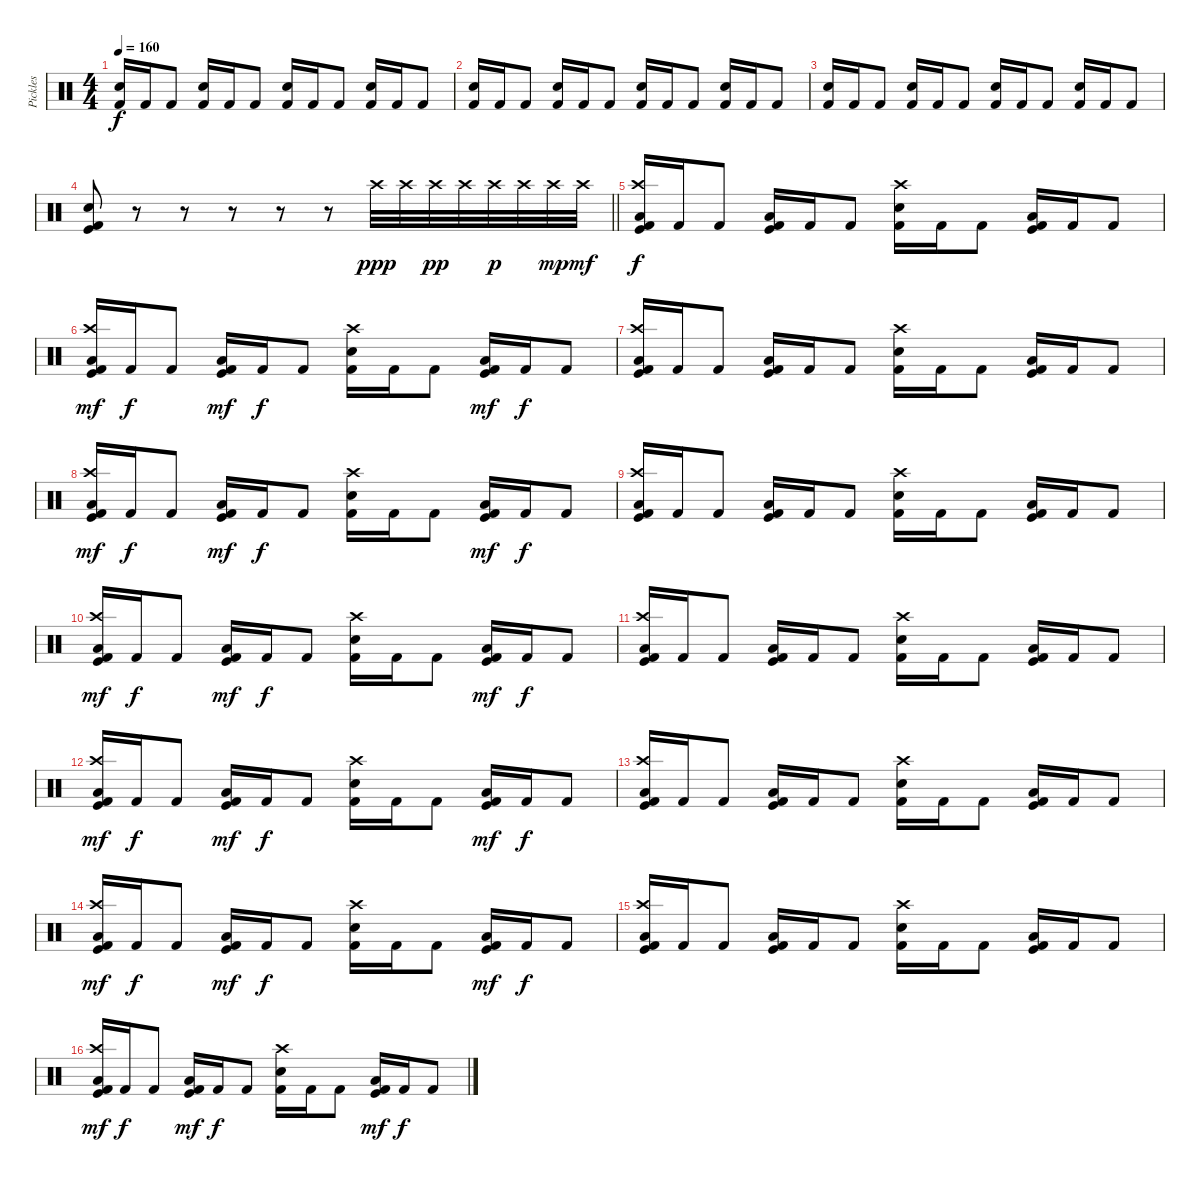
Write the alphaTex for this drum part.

\track ("Pickles" "Pickles") {instrument percussion}
\staff {score}
\articulation defaults
\ts (4 4)
\tempo 160
\clef neutral
\ks c
("Kick (hit) 2" "Electric Snare (hit)").16{dy f} "Kick (hit) 2".16 "Kick (hit) 2".8 ("Kick (hit) 2" "Electric Snare (hit)").16 "Kick (hit) 2".16 "Kick (hit) 2".8 ("Kick (hit) 2" "Electric Snare (hit)").16 "Kick (hit) 2".16 "Kick (hit) 2".8 ("Kick (hit) 2" "Electric Snare (hit)").16 "Kick (hit) 2".16 "Kick (hit) 2".8 |
("Kick (hit) 2" "Electric Snare (hit)").16 "Kick (hit) 2".16 "Kick (hit) 2".8 ("Kick (hit) 2" "Electric Snare (hit)").16 "Kick (hit) 2".16 "Kick (hit) 2".8 ("Kick (hit) 2" "Electric Snare (hit)").16 "Kick (hit) 2".16 "Kick (hit) 2".8 ("Kick (hit) 2" "Electric Snare (hit)").16 "Kick (hit) 2".16 "Kick (hit) 2".8 |
("Kick (hit) 2" "Electric Snare (hit)").16 "Kick (hit) 2".16 "Kick (hit) 2".8 ("Kick (hit) 2" "Electric Snare (hit)").16 "Kick (hit) 2".16 "Kick (hit) 2".8 ("Kick (hit) 2" "Electric Snare (hit)").16 "Kick (hit) 2".16 "Kick (hit) 2".8 ("Kick (hit) 2" "Electric Snare (hit)").16 "Kick (hit) 2".16 "Kick (hit) 2".8 |
\barLineRight lightlight
("Kick (hit) 2" "Kick (hit)" "Electric Snare (hit)").8 r.8 r.8 r.8 r.8 r.8 "Crash high (hit)".32{dy ppp} "Crash high (hit)".32 "Crash high (hit)".32{dy pp} "Crash high (hit)".32 "Crash high (hit)".32{dy p} "Crash high (hit)".32 "Crash high (hit)".32{dy mp} "Crash high (hit)".32{dy mf} |
("Kick (hit) 2" "Kick (hit)" "Low Tom (hit)" "Crash high (hit)").16{dy f} "Kick (hit) 2".16 "Kick (hit) 2".8 ("Kick (hit) 2" "Kick (hit)" "Low Tom (hit)").16 "Kick (hit) 2".16 "Kick (hit) 2".8 ("Kick (hit) 2" "Electric Snare (hit)" "Crash high (hit)").16 "Kick (hit) 2".16 "Kick (hit) 2".8 ("Kick (hit) 2" "Kick (hit)" "Low Tom (hit)").16 "Kick (hit) 2".16 "Kick (hit) 2".8 |
("Kick (hit) 2" "Kick (hit)" "Low Tom (hit)" "Crash high (hit)").16{dy mf} "Kick (hit) 2".16{dy f} "Kick (hit) 2".8 ("Kick (hit) 2" "Kick (hit)" "Low Tom (hit)").16{dy mf} "Kick (hit) 2".16{dy f} "Kick (hit) 2".8 ("Kick (hit) 2" "Electric Snare (hit)" "Crash high (hit)").16 "Kick (hit) 2".16 "Kick (hit) 2".8 ("Kick (hit) 2" "Kick (hit)" "Low Tom (hit)").16{dy mf} "Kick (hit) 2".16{dy f} "Kick (hit) 2".8 |
("Kick (hit) 2" "Kick (hit)" "Low Tom (hit)" "Crash high (hit)").16 "Kick (hit) 2".16 "Kick (hit) 2".8 ("Kick (hit) 2" "Kick (hit)" "Low Tom (hit)").16 "Kick (hit) 2".16 "Kick (hit) 2".8 ("Kick (hit) 2" "Electric Snare (hit)" "Crash high (hit)").16 "Kick (hit) 2".16 "Kick (hit) 2".8 ("Kick (hit) 2" "Kick (hit)" "Low Tom (hit)").16 "Kick (hit) 2".16 "Kick (hit) 2".8 |
("Kick (hit) 2" "Kick (hit)" "Low Tom (hit)" "Crash high (hit)").16{dy mf} "Kick (hit) 2".16{dy f} "Kick (hit) 2".8 ("Kick (hit) 2" "Kick (hit)" "Low Tom (hit)").16{dy mf} "Kick (hit) 2".16{dy f} "Kick (hit) 2".8 ("Kick (hit) 2" "Electric Snare (hit)" "Crash high (hit)").16 "Kick (hit) 2".16 "Kick (hit) 2".8 ("Kick (hit) 2" "Kick (hit)" "Low Tom (hit)").16{dy mf} "Kick (hit) 2".16{dy f} "Kick (hit) 2".8 |
("Kick (hit) 2" "Kick (hit)" "Low Tom (hit)" "Crash high (hit)").16 "Kick (hit) 2".16 "Kick (hit) 2".8 ("Kick (hit) 2" "Kick (hit)" "Low Tom (hit)").16 "Kick (hit) 2".16 "Kick (hit) 2".8 ("Kick (hit) 2" "Electric Snare (hit)" "Crash high (hit)").16 "Kick (hit) 2".16 "Kick (hit) 2".8 ("Kick (hit) 2" "Kick (hit)" "Low Tom (hit)").16 "Kick (hit) 2".16 "Kick (hit) 2".8 |
("Kick (hit) 2" "Kick (hit)" "Low Tom (hit)" "Crash high (hit)").16{dy mf} "Kick (hit) 2".16{dy f} "Kick (hit) 2".8 ("Kick (hit) 2" "Kick (hit)" "Low Tom (hit)").16{dy mf} "Kick (hit) 2".16{dy f} "Kick (hit) 2".8 ("Kick (hit) 2" "Electric Snare (hit)" "Crash high (hit)").16 "Kick (hit) 2".16 "Kick (hit) 2".8 ("Kick (hit) 2" "Kick (hit)" "Low Tom (hit)").16{dy mf} "Kick (hit) 2".16{dy f} "Kick (hit) 2".8 |
("Kick (hit) 2" "Kick (hit)" "Low Tom (hit)" "Crash high (hit)").16 "Kick (hit) 2".16 "Kick (hit) 2".8 ("Kick (hit) 2" "Kick (hit)" "Low Tom (hit)").16 "Kick (hit) 2".16 "Kick (hit) 2".8 ("Kick (hit) 2" "Electric Snare (hit)" "Crash high (hit)").16 "Kick (hit) 2".16 "Kick (hit) 2".8 ("Kick (hit) 2" "Kick (hit)" "Low Tom (hit)").16 "Kick (hit) 2".16 "Kick (hit) 2".8 |
("Kick (hit) 2" "Kick (hit)" "Low Tom (hit)" "Crash high (hit)").16{dy mf} "Kick (hit) 2".16{dy f} "Kick (hit) 2".8 ("Kick (hit) 2" "Kick (hit)" "Low Tom (hit)").16{dy mf} "Kick (hit) 2".16{dy f} "Kick (hit) 2".8 ("Kick (hit) 2" "Electric Snare (hit)" "Crash high (hit)").16 "Kick (hit) 2".16 "Kick (hit) 2".8 ("Kick (hit) 2" "Kick (hit)" "Low Tom (hit)").16{dy mf} "Kick (hit) 2".16{dy f} "Kick (hit) 2".8 |
("Kick (hit) 2" "Kick (hit)" "Low Tom (hit)" "Crash high (hit)").16 "Kick (hit) 2".16 "Kick (hit) 2".8 ("Kick (hit) 2" "Kick (hit)" "Low Tom (hit)").16 "Kick (hit) 2".16 "Kick (hit) 2".8 ("Kick (hit) 2" "Electric Snare (hit)" "Crash high (hit)").16 "Kick (hit) 2".16 "Kick (hit) 2".8 ("Kick (hit) 2" "Kick (hit)" "Low Tom (hit)").16 "Kick (hit) 2".16 "Kick (hit) 2".8 |
("Kick (hit) 2" "Kick (hit)" "Low Tom (hit)" "Crash high (hit)").16{dy mf} "Kick (hit) 2".16{dy f} "Kick (hit) 2".8 ("Kick (hit) 2" "Kick (hit)" "Low Tom (hit)").16{dy mf} "Kick (hit) 2".16{dy f} "Kick (hit) 2".8 ("Kick (hit) 2" "Electric Snare (hit)" "Crash high (hit)").16 "Kick (hit) 2".16 "Kick (hit) 2".8 ("Kick (hit) 2" "Kick (hit)" "Low Tom (hit)").16{dy mf} "Kick (hit) 2".16{dy f} "Kick (hit) 2".8 |
("Kick (hit) 2" "Kick (hit)" "Low Tom (hit)" "Crash high (hit)").16 "Kick (hit) 2".16 "Kick (hit) 2".8 ("Kick (hit) 2" "Kick (hit)" "Low Tom (hit)").16 "Kick (hit) 2".16 "Kick (hit) 2".8 ("Kick (hit) 2" "Electric Snare (hit)" "Crash high (hit)").16 "Kick (hit) 2".16 "Kick (hit) 2".8 ("Kick (hit) 2" "Kick (hit)" "Low Tom (hit)").16 "Kick (hit) 2".16 "Kick (hit) 2".8 |
("Kick (hit) 2" "Kick (hit)" "Low Tom (hit)" "Crash high (hit)").16{dy mf} "Kick (hit) 2".16{dy f} "Kick (hit) 2".8 ("Kick (hit) 2" "Kick (hit)" "Low Tom (hit)").16{dy mf} "Kick (hit) 2".16{dy f} "Kick (hit) 2".8 ("Kick (hit) 2" "Electric Snare (hit)" "Crash high (hit)").16 "Kick (hit) 2".16 "Kick (hit) 2".8 ("Kick (hit) 2" "Kick (hit)" "Low Tom (hit)").16{dy mf} "Kick (hit) 2".16{dy f} "Kick (hit) 2".8
